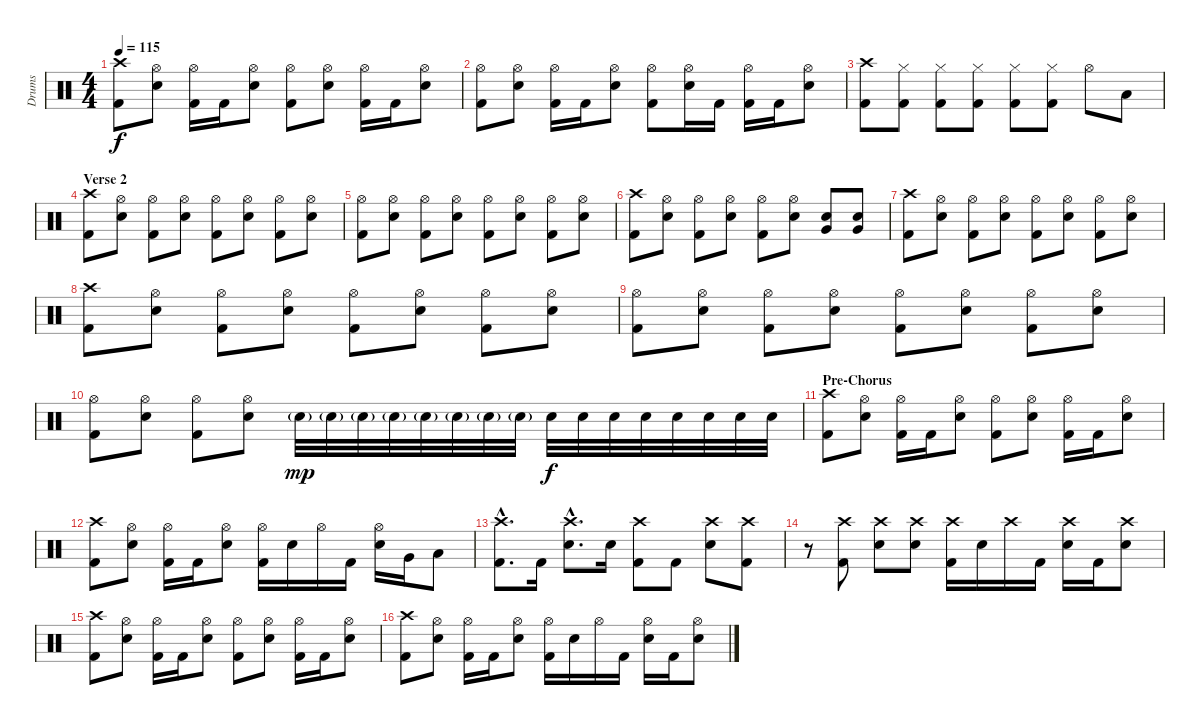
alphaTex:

\track ("Drums" "Drums") {instrument percussion}
\staff {score}
\articulation defaults
\ts (4 4)
\tempo 115
\clef neutral
\ks c
("Crash high (hit)" "Kick (hit) 2").8{dy f} ("Hi-Hat (open)" "Electric Snare (hit)").8 ("Hi-Hat (open)" "Kick (hit) 2").16 "Kick (hit) 2".16 ("Hi-Hat (open)" "Electric Snare (hit)").8 ("Hi-Hat (open)" "Kick (hit) 2").8 ("Hi-Hat (open)" "Electric Snare (hit)").8 ("Hi-Hat (open)" "Kick (hit) 2").16 "Kick (hit) 2".16 ("Hi-Hat (open)" "Electric Snare (hit)").8 |
("Hi-Hat (open)" "Kick (hit) 2").8 ("Hi-Hat (open)" "Electric Snare (hit)").8 ("Hi-Hat (open)" "Kick (hit) 2").16 "Kick (hit) 2".16 ("Hi-Hat (open)" "Electric Snare (hit)").8 ("Hi-Hat (open)" "Kick (hit) 2").8 ("Hi-Hat (open)" "Electric Snare (hit)").16 "Kick (hit) 2".16 ("Hi-Hat (open)" "Kick (hit) 2").16 "Kick (hit) 2".16 ("Hi-Hat (open)" "Electric Snare (hit)").8 |
("Crash high (hit)" "Kick (hit) 2").8 ("Hi-Hat (closed)" "Kick (hit) 2").8 ("Hi-Hat (closed)" "Kick (hit) 2").8 ("Hi-Hat (closed)" "Kick (hit) 2").8 ("Hi-Hat (closed)" "Kick (hit) 2").8 ("Hi-Hat (closed)" "Kick (hit) 2").8 "Hi-Hat (open)".8 "Low Floor Tom (hit)".8 |
\section ("" "Verse 2")
("Crash high (hit)" "Kick (hit) 2").8 ("Hi-Hat (open)" "Electric Snare (hit)").8 ("Hi-Hat (open)" "Kick (hit) 2").8 ("Hi-Hat (open)" "Electric Snare (hit)").8 ("Hi-Hat (open)" "Kick (hit) 2").8 ("Hi-Hat (open)" "Electric Snare (hit)").8 ("Hi-Hat (open)" "Kick (hit) 2").8 ("Hi-Hat (open)" "Electric Snare (hit)").8 |
("Hi-Hat (open)" "Kick (hit) 2").8 ("Hi-Hat (open)" "Electric Snare (hit)").8 ("Hi-Hat (open)" "Kick (hit) 2").8 ("Hi-Hat (open)" "Electric Snare (hit)").8 ("Hi-Hat (open)" "Kick (hit) 2").8 ("Hi-Hat (open)" "Electric Snare (hit)").8 ("Hi-Hat (open)" "Kick (hit) 2").8 ("Hi-Hat (open)" "Electric Snare (hit)").8 |
("Crash high (hit)" "Kick (hit) 2").8 ("Hi-Hat (open)" "Electric Snare (hit)").8 ("Hi-Hat (open)" "Kick (hit) 2").8 ("Hi-Hat (open)" "Electric Snare (hit)").8 ("Hi-Hat (open)" "Kick (hit) 2").8 ("Hi-Hat (open)" "Electric Snare (hit)").8 ("Electric Snare (hit)" "Very Low Tom (hit)").8 ("Electric Snare (hit)" "Very Low Tom (hit)").8 |
("Crash high (hit)" "Kick (hit) 2").8 ("Hi-Hat (open)" "Electric Snare (hit)").8 ("Hi-Hat (open)" "Kick (hit) 2").8 ("Hi-Hat (open)" "Electric Snare (hit)").8 ("Hi-Hat (open)" "Kick (hit) 2").8 ("Hi-Hat (open)" "Electric Snare (hit)").8 ("Hi-Hat (open)" "Kick (hit) 2").8 ("Hi-Hat (open)" "Electric Snare (hit)").8 |
("Crash high (hit)" "Kick (hit) 2").8 ("Hi-Hat (open)" "Electric Snare (hit)").8 ("Hi-Hat (open)" "Kick (hit) 2").8 ("Hi-Hat (open)" "Electric Snare (hit)").8 ("Hi-Hat (open)" "Kick (hit) 2").8 ("Hi-Hat (open)" "Electric Snare (hit)").8 ("Hi-Hat (open)" "Kick (hit) 2").8 ("Hi-Hat (open)" "Electric Snare (hit)").8 |
("Hi-Hat (open)" "Kick (hit) 2").8 ("Hi-Hat (open)" "Electric Snare (hit)").8 ("Hi-Hat (open)" "Kick (hit) 2").8 ("Hi-Hat (open)" "Electric Snare (hit)").8 ("Hi-Hat (open)" "Kick (hit) 2").8 ("Hi-Hat (open)" "Electric Snare (hit)").8 ("Hi-Hat (open)" "Kick (hit) 2").8 ("Hi-Hat (open)" "Electric Snare (hit)").8 |
("Hi-Hat (open)" "Kick (hit) 2").8 ("Hi-Hat (open)" "Electric Snare (hit)").8 ("Hi-Hat (open)" "Kick (hit) 2").8 ("Hi-Hat (open)" "Electric Snare (hit)").8 "Electric Snare (hit)"{g}.32{dy mp} "Electric Snare (hit)"{g}.32 "Electric Snare (hit)"{g}.32 "Electric Snare (hit)"{g}.32 "Electric Snare (hit)"{g}.32 "Electric Snare (hit)"{g}.32 "Electric Snare (hit)"{g}.32 "Electric Snare (hit)"{g}.32 "Electric Snare (hit)".32{dy f} "Electric Snare (hit)".32 "Electric Snare (hit)".32 "Electric Snare (hit)".32 "Electric Snare (hit)".32 "Electric Snare (hit)".32 "Electric Snare (hit)".32 "Electric Snare (hit)".32 |
\section ("" "Pre-Chorus")
("Crash high (hit)" "Kick (hit) 2").8 ("Hi-Hat (open)" "Electric Snare (hit)").8 ("Hi-Hat (open)" "Kick (hit) 2").16 "Kick (hit) 2".16 ("Hi-Hat (open)" "Electric Snare (hit)").8 ("Hi-Hat (open)" "Kick (hit) 2").8 ("Hi-Hat (open)" "Electric Snare (hit)").8 ("Hi-Hat (open)" "Kick (hit) 2").16 "Kick (hit) 2".16 ("Hi-Hat (open)" "Electric Snare (hit)").8 |
("Crash high (hit)" "Kick (hit) 2").8 ("Hi-Hat (open)" "Electric Snare (hit)").8 ("Hi-Hat (open)" "Kick (hit) 2").16 "Kick (hit) 2".16 ("Hi-Hat (open)" "Electric Snare (hit)").8 ("Hi-Hat (open)" "Kick (hit) 2").16 "Electric Snare (hit)".16 "Hi-Hat (open)".16 "Kick (hit) 2".16 ("Hi-Hat (open)" "Electric Snare (hit)").16 "Very Low Tom (hit)".16 "Low Floor Tom (hit)".8 |
("Crash high (hit)"{hac} "Kick (hit) 2"{hac}).8{d} "Kick (hit) 2".16 ("Crash high (hit)"{hac} "Electric Snare (hit)"{hac}).8{d} "Electric Snare (hit)".16 ("Crash high (hit)" "Kick (hit) 2").8 "Kick (hit) 2".8 ("Crash high (hit)" "Electric Snare (hit)").8 ("Crash high (hit)" "Kick (hit) 2").8 |
r.8 ("Crash high (hit)" "Kick (hit) 2").8 ("Crash high (hit)" "Electric Snare (hit)").8 ("Crash high (hit)" "Electric Snare (hit)").8 ("Crash high (hit)" "Kick (hit) 2").16 "Electric Snare (hit)".16 "Crash high (hit)".16 "Kick (hit) 2".16 ("Crash high (hit)" "Electric Snare (hit)").16 "Kick (hit) 2".16 ("Crash high (hit)" "Electric Snare (hit)").8 |
("Crash high (hit)" "Kick (hit) 2").8 ("Hi-Hat (open)" "Electric Snare (hit)").8 ("Hi-Hat (open)" "Kick (hit) 2").16 "Kick (hit) 2".16 ("Hi-Hat (open)" "Electric Snare (hit)").8 ("Hi-Hat (open)" "Kick (hit) 2").8 ("Hi-Hat (open)" "Electric Snare (hit)").8 ("Hi-Hat (open)" "Kick (hit) 2").16 "Kick (hit) 2".16 ("Hi-Hat (open)" "Electric Snare (hit)").8 |
("Crash high (hit)" "Kick (hit) 2").8 ("Hi-Hat (open)" "Electric Snare (hit)").8 ("Hi-Hat (open)" "Kick (hit) 2").16 "Kick (hit) 2".16 ("Hi-Hat (open)" "Electric Snare (hit)").8 ("Hi-Hat (open)" "Kick (hit) 2").16 "Electric Snare (hit)".16 "Hi-Hat (open)".16 "Kick (hit) 2".16 ("Hi-Hat (open)" "Electric Snare (hit)").16 "Kick (hit) 2".16 ("Hi-Hat (open)" "Electric Snare (hit)").8
